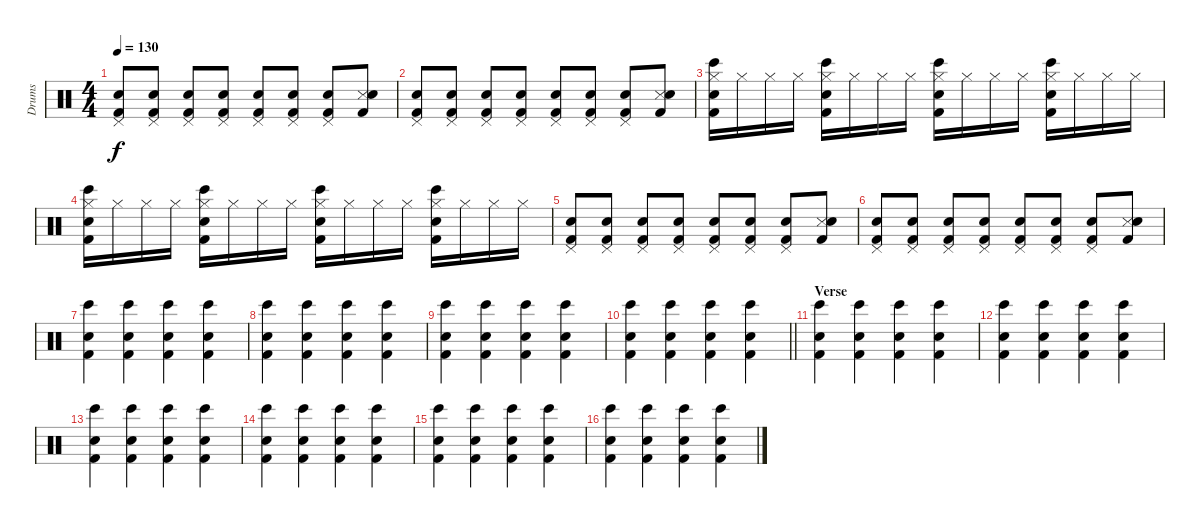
\track ("Drums" "Drums") {instrument percussion}
\staff {score}
\articulation defaults
\ts (4 4)
\tempo 130
\clef neutral
\ks c
("Pedal Hi-Hat (hit)" "Kick (hit) 2" "Electric Snare (hit)").8{dy f} ("Pedal Hi-Hat (hit)" "Kick (hit) 2" "Electric Snare (hit)").8 ("Pedal Hi-Hat (hit)" "Kick (hit) 2" "Electric Snare (hit)").8 ("Pedal Hi-Hat (hit)" "Kick (hit) 2" "Electric Snare (hit)").8 ("Pedal Hi-Hat (hit)" "Kick (hit) 2" "Electric Snare (hit)").8 ("Pedal Hi-Hat (hit)" "Kick (hit) 2" "Electric Snare (hit)").8 ("Pedal Hi-Hat (hit)" "Kick (hit) 2" "Electric Snare (hit)").8 ("Snare (side stick) 3" "Kick (hit) 2" "Electric Snare (hit)").8 |
("Pedal Hi-Hat (hit)" "Kick (hit) 2" "Electric Snare (hit)").8 ("Pedal Hi-Hat (hit)" "Kick (hit) 2" "Electric Snare (hit)").8 ("Pedal Hi-Hat (hit)" "Kick (hit) 2" "Electric Snare (hit)").8 ("Pedal Hi-Hat (hit)" "Kick (hit) 2" "Electric Snare (hit)").8 ("Pedal Hi-Hat (hit)" "Kick (hit) 2" "Electric Snare (hit)").8 ("Pedal Hi-Hat (hit)" "Kick (hit) 2" "Electric Snare (hit)").8 ("Pedal Hi-Hat (hit)" "Kick (hit) 2" "Electric Snare (hit)").8 ("Snare (side stick) 3" "Kick (hit) 2" "Electric Snare (hit)").8 |
("Hi-Hat (closed)" "Electric Snare (hit)" "Kick (hit) 2" "Bongo High (hit)").16 "Hi-Hat (closed)".16 "Hi-Hat (closed)".16 "Hi-Hat (closed)".16 ("Hi-Hat (closed)" "Electric Snare (hit)" "Kick (hit) 2" "Bongo High (hit)").16 "Hi-Hat (closed)".16 "Hi-Hat (closed)".16 "Hi-Hat (closed)".16 ("Hi-Hat (closed)" "Electric Snare (hit)" "Kick (hit) 2" "Bongo High (hit)").16 "Hi-Hat (closed)".16 "Hi-Hat (closed)".16 "Hi-Hat (closed)".16 ("Hi-Hat (closed)" "Electric Snare (hit)" "Kick (hit) 2" "Bongo High (hit)").16 "Hi-Hat (closed)".16 "Hi-Hat (closed)".16 "Hi-Hat (closed)".16 |
("Hi-Hat (closed)" "Electric Snare (hit)" "Kick (hit) 2" "Bongo High (hit)").16 "Hi-Hat (closed)".16 "Hi-Hat (closed)".16 "Hi-Hat (closed)".16 ("Hi-Hat (closed)" "Electric Snare (hit)" "Kick (hit) 2" "Bongo High (hit)").16 "Hi-Hat (closed)".16 "Hi-Hat (closed)".16 "Hi-Hat (closed)".16 ("Hi-Hat (closed)" "Electric Snare (hit)" "Kick (hit) 2" "Bongo High (hit)").16 "Hi-Hat (closed)".16 "Hi-Hat (closed)".16 "Hi-Hat (closed)".16 ("Hi-Hat (closed)" "Electric Snare (hit)" "Kick (hit) 2" "Bongo High (hit)").16 "Hi-Hat (closed)".16 "Hi-Hat (closed)".16 "Hi-Hat (closed)".16 |
("Pedal Hi-Hat (hit)" "Kick (hit) 2" "Electric Snare (hit)").8 ("Pedal Hi-Hat (hit)" "Kick (hit) 2" "Electric Snare (hit)").8 ("Pedal Hi-Hat (hit)" "Kick (hit) 2" "Electric Snare (hit)").8 ("Pedal Hi-Hat (hit)" "Kick (hit) 2" "Electric Snare (hit)").8 ("Pedal Hi-Hat (hit)" "Kick (hit) 2" "Electric Snare (hit)").8 ("Pedal Hi-Hat (hit)" "Kick (hit) 2" "Electric Snare (hit)").8 ("Pedal Hi-Hat (hit)" "Kick (hit) 2" "Electric Snare (hit)").8 ("Snare (side stick) 3" "Kick (hit) 2" "Electric Snare (hit)").8 |
("Pedal Hi-Hat (hit)" "Kick (hit) 2" "Electric Snare (hit)").8 ("Pedal Hi-Hat (hit)" "Kick (hit) 2" "Electric Snare (hit)").8 ("Pedal Hi-Hat (hit)" "Kick (hit) 2" "Electric Snare (hit)").8 ("Pedal Hi-Hat (hit)" "Kick (hit) 2" "Electric Snare (hit)").8 ("Pedal Hi-Hat (hit)" "Kick (hit) 2" "Electric Snare (hit)").8 ("Pedal Hi-Hat (hit)" "Kick (hit) 2" "Electric Snare (hit)").8 ("Pedal Hi-Hat (hit)" "Kick (hit) 2" "Electric Snare (hit)").8 ("Snare (side stick) 3" "Kick (hit) 2" "Electric Snare (hit)").8 |
("Electric Snare (hit)" "Kick (hit) 2" "Bongo High (hit)").4 ("Electric Snare (hit)" "Kick (hit) 2" "Bongo High (hit)").4 ("Electric Snare (hit)" "Kick (hit) 2" "Bongo High (hit)").4 ("Electric Snare (hit)" "Kick (hit) 2" "Bongo High (hit)").4 |
("Electric Snare (hit)" "Kick (hit) 2" "Bongo High (hit)").4 ("Electric Snare (hit)" "Kick (hit) 2" "Bongo High (hit)").4 ("Electric Snare (hit)" "Kick (hit) 2" "Bongo High (hit)").4 ("Electric Snare (hit)" "Kick (hit) 2" "Bongo High (hit)").4 |
("Electric Snare (hit)" "Kick (hit) 2" "Bongo High (hit)").4 ("Electric Snare (hit)" "Kick (hit) 2" "Bongo High (hit)").4 ("Electric Snare (hit)" "Kick (hit) 2" "Bongo High (hit)").4 ("Electric Snare (hit)" "Kick (hit) 2" "Bongo High (hit)").4 |
\barLineRight lightlight
("Electric Snare (hit)" "Kick (hit) 2" "Bongo High (hit)").4 ("Electric Snare (hit)" "Kick (hit) 2" "Bongo High (hit)").4 ("Electric Snare (hit)" "Kick (hit) 2" "Bongo High (hit)").4 ("Electric Snare (hit)" "Kick (hit) 2" "Bongo High (hit)").4 |
\section ("" "Verse")
("Electric Snare (hit)" "Kick (hit) 2" "Bongo High (hit)").4 ("Electric Snare (hit)" "Kick (hit) 2" "Bongo High (hit)").4 ("Electric Snare (hit)" "Kick (hit) 2" "Bongo High (hit)").4 ("Electric Snare (hit)" "Kick (hit) 2" "Bongo High (hit)").4 |
("Electric Snare (hit)" "Kick (hit) 2" "Bongo High (hit)").4 ("Electric Snare (hit)" "Kick (hit) 2" "Bongo High (hit)").4 ("Electric Snare (hit)" "Kick (hit) 2" "Bongo High (hit)").4 ("Electric Snare (hit)" "Kick (hit) 2" "Bongo High (hit)").4 |
("Electric Snare (hit)" "Kick (hit) 2" "Bongo High (hit)").4 ("Electric Snare (hit)" "Kick (hit) 2" "Bongo High (hit)").4 ("Electric Snare (hit)" "Kick (hit) 2" "Bongo High (hit)").4 ("Electric Snare (hit)" "Kick (hit) 2" "Bongo High (hit)").4 |
("Electric Snare (hit)" "Kick (hit) 2" "Bongo High (hit)").4 ("Electric Snare (hit)" "Kick (hit) 2" "Bongo High (hit)").4 ("Electric Snare (hit)" "Kick (hit) 2" "Bongo High (hit)").4 ("Electric Snare (hit)" "Kick (hit) 2" "Bongo High (hit)").4 |
("Electric Snare (hit)" "Kick (hit) 2" "Bongo High (hit)").4 ("Electric Snare (hit)" "Kick (hit) 2" "Bongo High (hit)").4 ("Electric Snare (hit)" "Kick (hit) 2" "Bongo High (hit)").4 ("Electric Snare (hit)" "Kick (hit) 2" "Bongo High (hit)").4 |
("Electric Snare (hit)" "Kick (hit) 2" "Bongo High (hit)").4 ("Electric Snare (hit)" "Kick (hit) 2" "Bongo High (hit)").4 ("Electric Snare (hit)" "Kick (hit) 2" "Bongo High (hit)").4 ("Electric Snare (hit)" "Kick (hit) 2" "Bongo High (hit)").4
